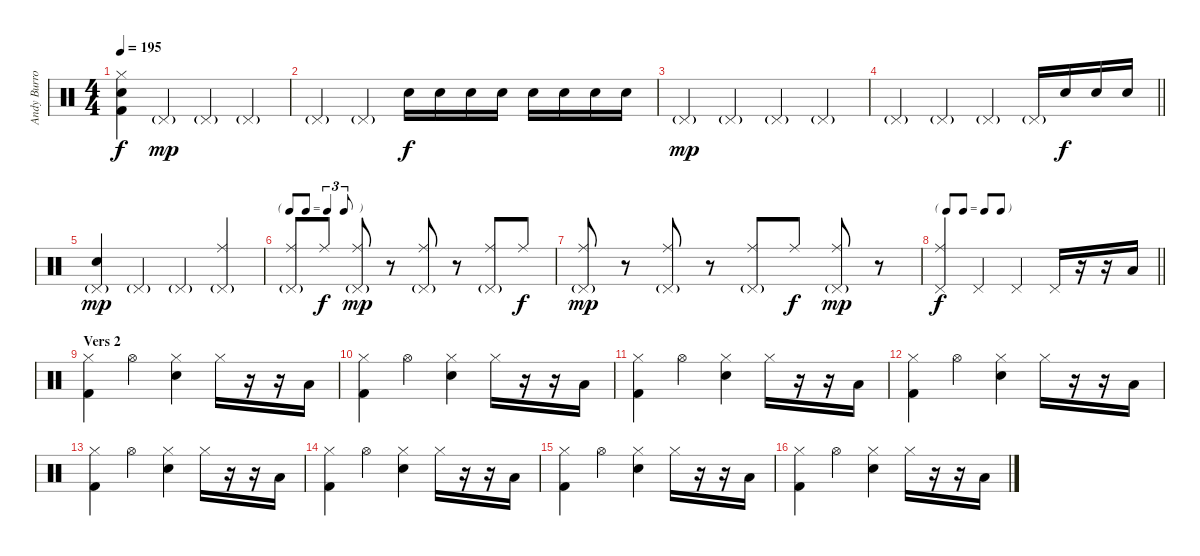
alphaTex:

\track ("Andy Burrows (drums)" "Andy Burro") {instrument percussion}
\staff {score}
\articulation defaults
\ts (4 4)
\section ("" "")
\tempo 195
\clef neutral
\ks c
("Hi-Hat (closed)" "Electric Snare (hit)" "Kick (hit) 2").4{dy f} "Pedal Hi-Hat (hit)"{g}.4{dy mp} "Pedal Hi-Hat (hit)"{g}.4 "Pedal Hi-Hat (hit)"{g}.4 |
"Pedal Hi-Hat (hit)"{g}.4 "Pedal Hi-Hat (hit)"{g}.4 "Electric Snare (hit)".16{dy f} "Electric Snare (hit)".16 "Electric Snare (hit)".16 "Electric Snare (hit)".16 "Electric Snare (hit)".16 "Electric Snare (hit)".16 "Electric Snare (hit)".16 "Electric Snare (hit)".16 |
"Pedal Hi-Hat (hit)"{g}.4{dy mp} "Pedal Hi-Hat (hit)"{g}.4 "Pedal Hi-Hat (hit)"{g}.4 "Pedal Hi-Hat (hit)"{g}.4 |
\barLineRight lightlight "Pedal Hi-Hat (hit)"{g}.4 "Pedal Hi-Hat (hit)"{g}.4 "Pedal Hi-Hat (hit)"{g}.4 "Pedal Hi-Hat (hit)"{g}.16 "Electric Snare (hit)".16{dy f} "Electric Snare (hit)".16 "Electric Snare (hit)".16
|
("Pedal Hi-Hat (hit)"{g} "Electric Snare (hit)").4{dy mp} "Pedal Hi-Hat (hit)"{g}.4 "Pedal Hi-Hat (hit)"{g}.4 ("Pedal Hi-Hat (hit)"{g} "Ride (middle)").4 |
\tf triplet8th
("Pedal Hi-Hat (hit)"{g} "Ride (middle)").8 "Ride (middle)".8{dy f} ("Pedal Hi-Hat (hit)"{g} "Ride (middle)").8{dy mp} r.8 ("Pedal Hi-Hat (hit)"{g} "Ride (middle)").8 r.8 ("Pedal Hi-Hat (hit)"{g} "Ride (middle)").8 "Ride (middle)".8{dy f} |
("Pedal Hi-Hat (hit)"{g} "Ride (middle)").8{dy mp} r.8 ("Pedal Hi-Hat (hit)"{g} "Ride (middle)").8 r.8 ("Pedal Hi-Hat (hit)"{g} "Ride (middle)").8 "Ride (middle)".8{dy f} ("Pedal Hi-Hat (hit)"{g} "Ride (middle)").8{dy mp} r.8 |
\tf none
\barLineRight lightlight
("Pedal Hi-Hat (hit)" "Ride (middle)").4{dy f} "Pedal Hi-Hat (hit)".4 "Pedal Hi-Hat (hit)".4 "Pedal Hi-Hat (hit)".16 r.16 r.16 "Low Floor Tom (hit)".16 |
\section ("" "Vers 2")
("Hi-Hat (closed)" "Kick (hit) 2").4 "Hi-Hat (open)".4 ("Hi-Hat (closed)" "Electric Snare (hit)").4 "Hi-Hat (closed)".16 r.16 r.16 "Low Floor Tom (hit)".16 |
("Hi-Hat (closed)" "Kick (hit) 2").4 "Hi-Hat (open)".4 ("Hi-Hat (closed)" "Electric Snare (hit)").4 "Hi-Hat (closed)".16 r.16 r.16 "Low Floor Tom (hit)".16 |
("Hi-Hat (closed)" "Kick (hit) 2").4 "Hi-Hat (open)".4 ("Hi-Hat (closed)" "Electric Snare (hit)").4 "Hi-Hat (closed)".16 r.16 r.16 "Low Floor Tom (hit)".16 |
("Hi-Hat (closed)" "Kick (hit) 2").4 "Hi-Hat (open)".4 ("Hi-Hat (closed)" "Electric Snare (hit)").4 "Hi-Hat (closed)".16 r.16 r.16 "Low Floor Tom (hit)".16 |
("Hi-Hat (closed)" "Kick (hit) 2").4 "Hi-Hat (open)".4 ("Hi-Hat (closed)" "Electric Snare (hit)").4 "Hi-Hat (closed)".16 r.16 r.16 "Low Floor Tom (hit)".16 |
("Hi-Hat (closed)" "Kick (hit) 2").4 "Hi-Hat (open)".4 ("Hi-Hat (closed)" "Electric Snare (hit)").4 "Hi-Hat (closed)".16 r.16 r.16 "Low Floor Tom (hit)".16 |
("Hi-Hat (closed)" "Kick (hit) 2").4 "Hi-Hat (open)".4 ("Hi-Hat (closed)" "Electric Snare (hit)").4 "Hi-Hat (closed)".16 r.16 r.16 "Low Floor Tom (hit)".16 |
("Hi-Hat (closed)" "Kick (hit) 2").4 "Hi-Hat (open)".4 ("Hi-Hat (closed)" "Electric Snare (hit)").4 "Hi-Hat (closed)".16 r.16 r.16 "Low Floor Tom (hit)".16
